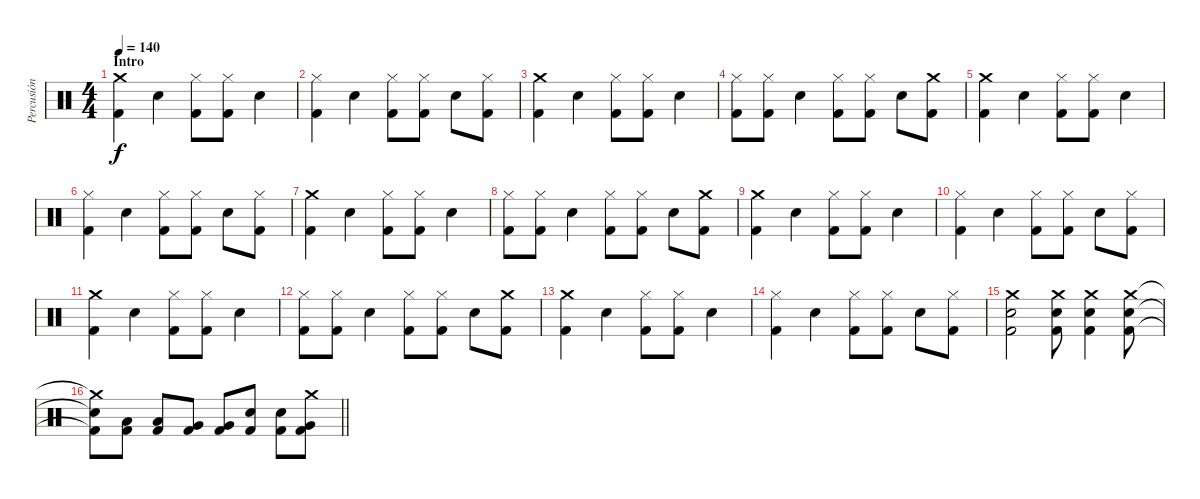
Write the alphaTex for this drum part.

\track ("Percusión" "Percusión") {instrument percussion}
\staff {score}
\articulation defaults
\ts (4 4)
\section ("" "Intro")
\tempo 140
\clef neutral
\ks c
("Crash medium (hit)" "Kick (hit) 2").4{dy f} "Snare (hit) 2".4 ("Hi-Hat (closed)" "Kick (hit) 2").8 ("Hi-Hat (closed)" "Kick (hit) 2").8 "Snare (hit) 2".4 |
("Hi-Hat (closed)" "Kick (hit) 2").4 "Snare (hit) 2".4 ("Hi-Hat (closed)" "Kick (hit) 2").8 ("Hi-Hat (closed)" "Kick (hit) 2").8 "Snare (hit) 2".8 ("Hi-Hat (closed)" "Kick (hit) 2").8 |
("Crash medium (hit)" "Kick (hit) 2").4 "Snare (hit) 2".4 ("Hi-Hat (closed)" "Kick (hit) 2").8 ("Hi-Hat (closed)" "Kick (hit) 2").8 "Snare (hit) 2".4 |
("Hi-Hat (closed)" "Kick (hit) 2").8 ("Hi-Hat (closed)" "Kick (hit) 2").8 "Snare (hit) 2".4 ("Hi-Hat (closed)" "Kick (hit) 2").8 ("Hi-Hat (closed)" "Kick (hit) 2").8 "Snare (hit) 2".8 ("Crash medium (hit)" "Kick (hit) 2").8 |
("Crash medium (hit)" "Kick (hit) 2").4 "Snare (hit) 2".4 ("Hi-Hat (closed)" "Kick (hit) 2").8 ("Hi-Hat (closed)" "Kick (hit) 2").8 "Snare (hit) 2".4 |
("Hi-Hat (closed)" "Kick (hit) 2").4 "Snare (hit) 2".4 ("Hi-Hat (closed)" "Kick (hit) 2").8 ("Hi-Hat (closed)" "Kick (hit) 2").8 "Snare (hit) 2".8 ("Hi-Hat (closed)" "Kick (hit) 2").8 |
("Crash medium (hit)" "Kick (hit) 2").4 "Snare (hit) 2".4 ("Hi-Hat (closed)" "Kick (hit) 2").8 ("Hi-Hat (closed)" "Kick (hit) 2").8 "Snare (hit) 2".4 |
("Hi-Hat (closed)" "Kick (hit) 2").8 ("Hi-Hat (closed)" "Kick (hit) 2").8 "Snare (hit) 2".4 ("Hi-Hat (closed)" "Kick (hit) 2").8 ("Hi-Hat (closed)" "Kick (hit) 2").8 "Snare (hit) 2".8 ("Crash medium (hit)" "Kick (hit) 2").8 |
("Crash medium (hit)" "Kick (hit) 2").4 "Snare (hit) 2".4 ("Hi-Hat (closed)" "Kick (hit) 2").8 ("Hi-Hat (closed)" "Kick (hit) 2").8 "Snare (hit) 2".4 |
("Hi-Hat (closed)" "Kick (hit) 2").4 "Snare (hit) 2".4 ("Hi-Hat (closed)" "Kick (hit) 2").8 ("Hi-Hat (closed)" "Kick (hit) 2").8 "Snare (hit) 2".8 ("Hi-Hat (closed)" "Kick (hit) 2").8 |
("Crash medium (hit)" "Kick (hit) 2").4 "Snare (hit) 2".4 ("Hi-Hat (closed)" "Kick (hit) 2").8 ("Hi-Hat (closed)" "Kick (hit) 2").8 "Snare (hit) 2".4 |
("Hi-Hat (closed)" "Kick (hit) 2").8 ("Hi-Hat (closed)" "Kick (hit) 2").8 "Snare (hit) 2".4 ("Hi-Hat (closed)" "Kick (hit) 2").8 ("Hi-Hat (closed)" "Kick (hit) 2").8 "Snare (hit) 2".8 ("Crash medium (hit)" "Kick (hit) 2").8 |
("Crash medium (hit)" "Kick (hit) 2").4 "Snare (hit) 2".4 ("Hi-Hat (closed)" "Kick (hit) 2").8 ("Hi-Hat (closed)" "Kick (hit) 2").8 "Snare (hit) 2".4 |
("Hi-Hat (closed)" "Kick (hit) 2").4 "Snare (hit) 2".4 ("Hi-Hat (closed)" "Kick (hit) 2").8 ("Hi-Hat (closed)" "Kick (hit) 2").8 "Snare (hit) 2".8 ("Hi-Hat (closed)" "Kick (hit) 2").8 |
("Crash medium (hit)" "Snare (hit) 2" "Kick (hit) 2").2 ("Crash medium (hit)" "Snare (hit) 2" "Kick (hit) 2").8 ("Crash medium (hit)" "Snare (hit) 2" "Kick (hit) 2").4 ("Crash medium (hit)" "Snare (hit) 2" "Kick (hit) 2").8 |
\barLineRight lightlight
("Crash medium (hit)"{t} "Snare (hit) 2"{t} "Kick (hit) 2"{t}).8 ("Low Floor Tom (hit)" "Kick (hit) 2").8 ("Low Floor Tom (hit)" "Kick (hit) 2").8 ("Very Low Tom (hit)" "Kick (hit) 2").8 ("Very Low Tom (hit)" "Kick (hit) 2").8 ("Snare (hit) 2" "Kick (hit) 2").8 ("Snare (hit) 2" "Kick (hit) 2").8 ("Crash medium (hit)" "Very Low Tom (hit)" "Kick (hit) 2").8
